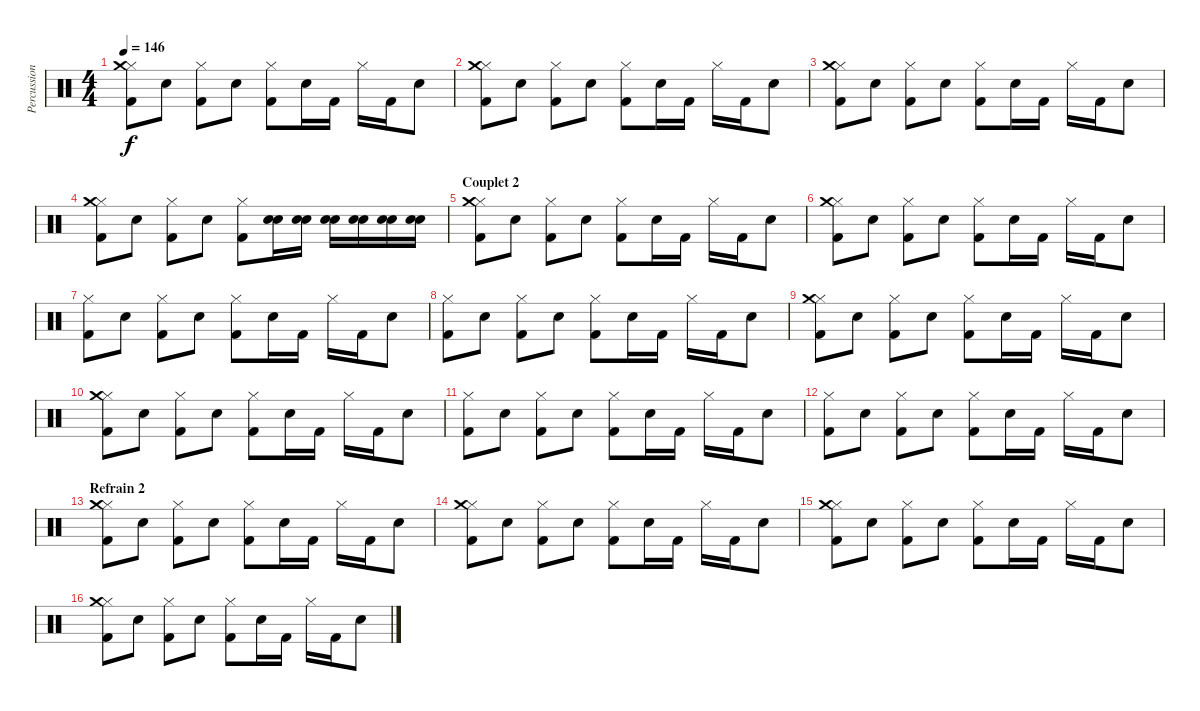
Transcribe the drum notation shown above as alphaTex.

\track ("Percussions" "Percussion") {instrument percussion}
\staff {score}
\articulation defaults
\ts (4 4)
\tempo 146
\clef neutral
\ks c
("Hi-Hat (closed)" "Crash medium (hit)" "Kick (hit) 2").8{dy f} "Electric Snare (hit)".8 ("Hi-Hat (closed)" "Kick (hit) 2").8 "Electric Snare (hit)".8 ("Hi-Hat (closed)" "Kick (hit) 2").8 "Electric Snare (hit)".16 "Kick (hit) 2".16 "Hi-Hat (closed)".16 "Kick (hit) 2".16 "Electric Snare (hit)".8 |
("Hi-Hat (closed)" "Crash medium (hit)" "Kick (hit) 2").8 "Electric Snare (hit)".8 ("Hi-Hat (closed)" "Kick (hit) 2").8 "Electric Snare (hit)".8 ("Hi-Hat (closed)" "Kick (hit) 2").8 "Electric Snare (hit)".16 "Kick (hit) 2".16 "Hi-Hat (closed)".16 "Kick (hit) 2".16 "Electric Snare (hit)".8 |
("Hi-Hat (closed)" "Crash medium (hit)" "Kick (hit) 2").8 "Electric Snare (hit)".8 ("Hi-Hat (closed)" "Kick (hit) 2").8 "Electric Snare (hit)".8 ("Hi-Hat (closed)" "Kick (hit) 2").8 "Electric Snare (hit)".16 "Kick (hit) 2".16 "Hi-Hat (closed)".16 "Kick (hit) 2".16 "Electric Snare (hit)".8 |
("Hi-Hat (closed)" "Crash medium (hit)" "Kick (hit) 2").8 "Electric Snare (hit)".8 ("Hi-Hat (closed)" "Kick (hit) 2").8 "Electric Snare (hit)".8 ("Hi-Hat (closed)" "Kick (hit) 2").8 ("Electric Snare (hit)" "Snare (hit) 2").16 ("Electric Snare (hit)" "Snare (hit) 2").16 ("Electric Snare (hit)" "Snare (hit) 2").16 ("Electric Snare (hit)" "Snare (hit) 2").16 ("Electric Snare (hit)" "Snare (hit) 2").16 ("Electric Snare (hit)" "Snare (hit) 2").16 |
\section ("" "Couplet 2 ")
("Hi-Hat (closed)" "Crash medium (hit)" "Kick (hit) 2").8 "Electric Snare (hit)".8 ("Hi-Hat (closed)" "Kick (hit) 2").8 "Electric Snare (hit)".8 ("Hi-Hat (closed)" "Kick (hit) 2").8 "Electric Snare (hit)".16 "Kick (hit) 2".16 "Hi-Hat (closed)".16 "Kick (hit) 2".16 "Electric Snare (hit)".8 |
("Hi-Hat (closed)" "Crash medium (hit)" "Kick (hit) 2").8 "Electric Snare (hit)".8 ("Hi-Hat (closed)" "Kick (hit) 2").8 "Electric Snare (hit)".8 ("Hi-Hat (closed)" "Kick (hit) 2").8 "Electric Snare (hit)".16 "Kick (hit) 2".16 "Hi-Hat (closed)".16 "Kick (hit) 2".16 "Electric Snare (hit)".8 |
("Hi-Hat (closed)" "Kick (hit) 2").8 "Electric Snare (hit)".8 ("Hi-Hat (closed)" "Kick (hit) 2").8 "Electric Snare (hit)".8 ("Hi-Hat (closed)" "Kick (hit) 2").8 "Electric Snare (hit)".16 "Kick (hit) 2".16 "Hi-Hat (closed)".16 "Kick (hit) 2".16 "Electric Snare (hit)".8 |
("Hi-Hat (closed)" "Kick (hit) 2").8 "Electric Snare (hit)".8 ("Hi-Hat (closed)" "Kick (hit) 2").8 "Electric Snare (hit)".8 ("Hi-Hat (closed)" "Kick (hit) 2").8 "Electric Snare (hit)".16 "Kick (hit) 2".16 "Hi-Hat (closed)".16 "Kick (hit) 2".16 "Electric Snare (hit)".8 |
("Hi-Hat (closed)" "Crash medium (hit)" "Kick (hit) 2").8 "Electric Snare (hit)".8 ("Hi-Hat (closed)" "Kick (hit) 2").8 "Electric Snare (hit)".8 ("Hi-Hat (closed)" "Kick (hit) 2").8 "Electric Snare (hit)".16 "Kick (hit) 2".16 "Hi-Hat (closed)".16 "Kick (hit) 2".16 "Electric Snare (hit)".8 |
("Hi-Hat (closed)" "Crash medium (hit)" "Kick (hit) 2").8 "Electric Snare (hit)".8 ("Hi-Hat (closed)" "Kick (hit) 2").8 "Electric Snare (hit)".8 ("Hi-Hat (closed)" "Kick (hit) 2").8 "Electric Snare (hit)".16 "Kick (hit) 2".16 "Hi-Hat (closed)".16 "Kick (hit) 2".16 "Electric Snare (hit)".8 |
("Hi-Hat (closed)" "Kick (hit) 2").8 "Electric Snare (hit)".8 ("Hi-Hat (closed)" "Kick (hit) 2").8 "Electric Snare (hit)".8 ("Hi-Hat (closed)" "Kick (hit) 2").8 "Electric Snare (hit)".16 "Kick (hit) 2".16 "Hi-Hat (closed)".16 "Kick (hit) 2".16 "Electric Snare (hit)".8 |
("Hi-Hat (closed)" "Kick (hit) 2").8 "Electric Snare (hit)".8 ("Hi-Hat (closed)" "Kick (hit) 2").8 "Electric Snare (hit)".8 ("Hi-Hat (closed)" "Kick (hit) 2").8 "Electric Snare (hit)".16 "Kick (hit) 2".16 "Hi-Hat (closed)".16 "Kick (hit) 2".16 "Electric Snare (hit)".8 |
\section ("" "Refrain 2")
("Hi-Hat (closed)" "Crash medium (hit)" "Kick (hit) 2").8 "Electric Snare (hit)".8 ("Hi-Hat (closed)" "Kick (hit) 2").8 "Electric Snare (hit)".8 ("Hi-Hat (closed)" "Kick (hit) 2").8 "Electric Snare (hit)".16 "Kick (hit) 2".16 "Hi-Hat (closed)".16 "Kick (hit) 2".16 "Electric Snare (hit)".8 |
("Hi-Hat (closed)" "Crash medium (hit)" "Kick (hit) 2").8 "Electric Snare (hit)".8 ("Hi-Hat (closed)" "Kick (hit) 2").8 "Electric Snare (hit)".8 ("Hi-Hat (closed)" "Kick (hit) 2").8 "Electric Snare (hit)".16 "Kick (hit) 2".16 "Hi-Hat (closed)".16 "Kick (hit) 2".16 "Electric Snare (hit)".8 |
("Hi-Hat (closed)" "Crash medium (hit)" "Kick (hit) 2").8 "Electric Snare (hit)".8 ("Hi-Hat (closed)" "Kick (hit) 2").8 "Electric Snare (hit)".8 ("Hi-Hat (closed)" "Kick (hit) 2").8 "Electric Snare (hit)".16 "Kick (hit) 2".16 "Hi-Hat (closed)".16 "Kick (hit) 2".16 "Electric Snare (hit)".8 |
("Hi-Hat (closed)" "Crash medium (hit)" "Kick (hit) 2").8 "Electric Snare (hit)".8 ("Hi-Hat (closed)" "Kick (hit) 2").8 "Electric Snare (hit)".8 ("Hi-Hat (closed)" "Kick (hit) 2").8 "Electric Snare (hit)".16 "Kick (hit) 2".16 "Hi-Hat (closed)".16 "Kick (hit) 2".16 "Electric Snare (hit)".8
